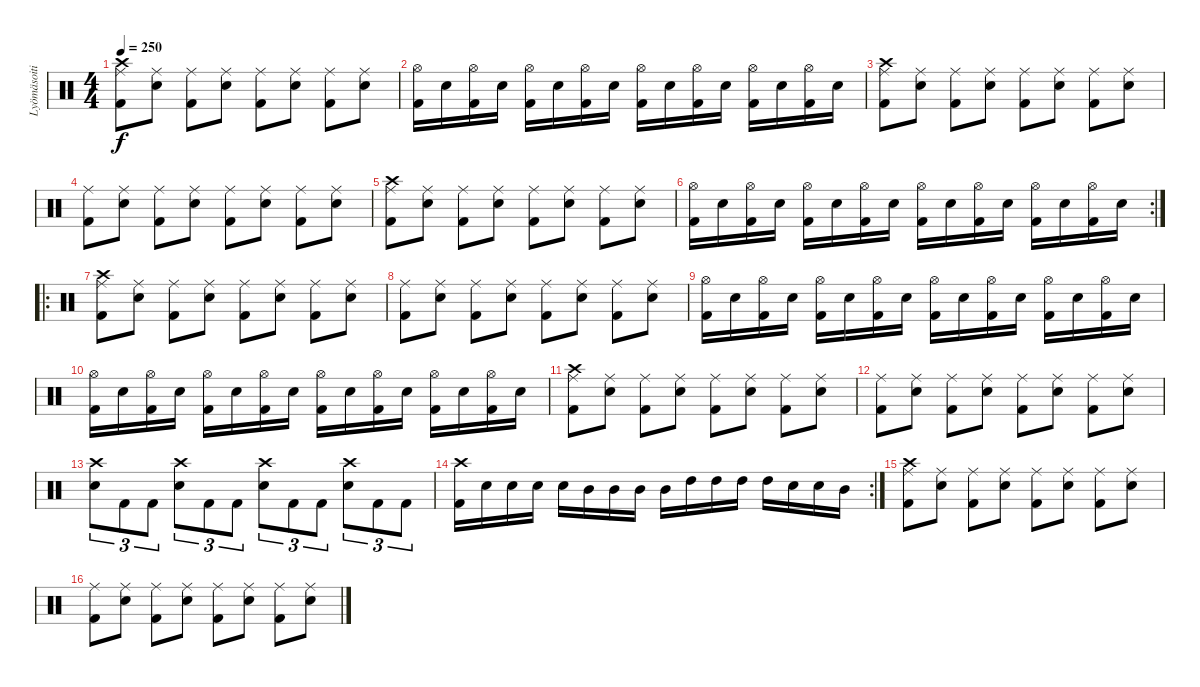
\track ("Lyömäsoitin" "Lyömäsoiti") {instrument percussion}
\staff {score}
\articulation defaults
\ts (4 4)
\tempo 250
\clef neutral
\ks c
("Crash high (hit)" "Ride (middle)" "Kick (hit) 2").8{dy f} ("Ride (middle)" "Electric Snare (hit)").8 ("Ride (middle)" "Kick (hit) 2").8 ("Ride (middle)" "Electric Snare (hit)").8 ("Ride (middle)" "Kick (hit) 2").8 ("Ride (middle)" "Electric Snare (hit)").8 ("Ride (middle)" "Kick (hit) 2").8 ("Ride (middle)" "Electric Snare (hit)").8 |
("Hi-Hat (open)" "Kick (hit) 2").16 "Electric Snare (hit)".16 ("Hi-Hat (open)" "Kick (hit) 2").16 "Electric Snare (hit)".16 ("Hi-Hat (open)" "Kick (hit) 2").16 "Electric Snare (hit)".16 ("Hi-Hat (open)" "Kick (hit) 2").16 "Electric Snare (hit)".16 ("Hi-Hat (open)" "Kick (hit) 2").16 "Electric Snare (hit)".16 ("Hi-Hat (open)" "Kick (hit) 2").16 "Electric Snare (hit)".16 ("Hi-Hat (open)" "Kick (hit) 2").16 "Electric Snare (hit)".16 ("Hi-Hat (open)" "Kick (hit) 2").16 "Electric Snare (hit)".16 |
("Crash high (hit)" "Ride (middle)" "Kick (hit) 2").8 ("Ride (middle)" "Electric Snare (hit)").8 ("Ride (middle)" "Kick (hit) 2").8 ("Ride (middle)" "Electric Snare (hit)").8 ("Ride (middle)" "Kick (hit) 2").8 ("Ride (middle)" "Electric Snare (hit)").8 ("Ride (middle)" "Kick (hit) 2").8 ("Ride (middle)" "Electric Snare (hit)").8 |
("Ride (middle)" "Kick (hit) 2").8 ("Ride (middle)" "Electric Snare (hit)").8 ("Ride (middle)" "Kick (hit) 2").8 ("Ride (middle)" "Electric Snare (hit)").8 ("Ride (middle)" "Kick (hit) 2").8 ("Ride (middle)" "Electric Snare (hit)").8 ("Ride (middle)" "Kick (hit) 2").8 ("Ride (middle)" "Electric Snare (hit)").8 |
("Crash high (hit)" "Ride (middle)" "Kick (hit) 2").8 ("Ride (middle)" "Electric Snare (hit)").8 ("Ride (middle)" "Kick (hit) 2").8 ("Ride (middle)" "Electric Snare (hit)").8 ("Ride (middle)" "Kick (hit) 2").8 ("Ride (middle)" "Electric Snare (hit)").8 ("Ride (middle)" "Kick (hit) 2").8 ("Ride (middle)" "Electric Snare (hit)").8 |
\rc 2
("Hi-Hat (open)" "Kick (hit) 2").16 "Electric Snare (hit)".16 ("Hi-Hat (open)" "Kick (hit) 2").16 "Electric Snare (hit)".16 ("Hi-Hat (open)" "Kick (hit) 2").16 "Electric Snare (hit)".16 ("Hi-Hat (open)" "Kick (hit) 2").16 "Electric Snare (hit)".16 ("Hi-Hat (open)" "Kick (hit) 2").16 "Electric Snare (hit)".16 ("Hi-Hat (open)" "Kick (hit) 2").16 "Electric Snare (hit)".16 ("Hi-Hat (open)" "Kick (hit) 2").16 "Electric Snare (hit)".16 ("Hi-Hat (open)" "Kick (hit) 2").16 "Electric Snare (hit)".16 |
\ro
("Crash high (hit)" "Ride (middle)" "Kick (hit) 2").8 ("Ride (middle)" "Electric Snare (hit)").8 ("Ride (middle)" "Kick (hit) 2").8 ("Ride (middle)" "Electric Snare (hit)").8 ("Ride (middle)" "Kick (hit) 2").8 ("Ride (middle)" "Electric Snare (hit)").8 ("Ride (middle)" "Kick (hit) 2").8 ("Ride (middle)" "Electric Snare (hit)").8 |
("Ride (middle)" "Kick (hit) 2").8 ("Ride (middle)" "Electric Snare (hit)").8 ("Ride (middle)" "Kick (hit) 2").8 ("Ride (middle)" "Electric Snare (hit)").8 ("Ride (middle)" "Kick (hit) 2").8 ("Ride (middle)" "Electric Snare (hit)").8 ("Ride (middle)" "Kick (hit) 2").8 ("Ride (middle)" "Electric Snare (hit)").8 |
("Hi-Hat (open)" "Kick (hit) 2").16 "Electric Snare (hit)".16 ("Hi-Hat (open)" "Kick (hit) 2").16 "Electric Snare (hit)".16 ("Hi-Hat (open)" "Kick (hit) 2").16 "Electric Snare (hit)".16 ("Hi-Hat (open)" "Kick (hit) 2").16 "Electric Snare (hit)".16 ("Hi-Hat (open)" "Kick (hit) 2").16 "Electric Snare (hit)".16 ("Hi-Hat (open)" "Kick (hit) 2").16 "Electric Snare (hit)".16 ("Hi-Hat (open)" "Kick (hit) 2").16 "Electric Snare (hit)".16 ("Hi-Hat (open)" "Kick (hit) 2").16 "Electric Snare (hit)".16 |
("Hi-Hat (open)" "Kick (hit) 2").16 "Electric Snare (hit)".16 ("Hi-Hat (open)" "Kick (hit) 2").16 "Electric Snare (hit)".16 ("Hi-Hat (open)" "Kick (hit) 2").16 "Electric Snare (hit)".16 ("Hi-Hat (open)" "Kick (hit) 2").16 "Electric Snare (hit)".16 ("Hi-Hat (open)" "Kick (hit) 2").16 "Electric Snare (hit)".16 ("Hi-Hat (open)" "Kick (hit) 2").16 "Electric Snare (hit)".16 ("Hi-Hat (open)" "Kick (hit) 2").16 "Electric Snare (hit)".16 ("Hi-Hat (open)" "Kick (hit) 2").16 "Electric Snare (hit)".16 |
("Crash high (hit)" "Ride (middle)" "Kick (hit) 2").8 ("Ride (middle)" "Electric Snare (hit)").8 ("Ride (middle)" "Kick (hit) 2").8 ("Ride (middle)" "Electric Snare (hit)").8 ("Ride (middle)" "Kick (hit) 2").8 ("Ride (middle)" "Electric Snare (hit)").8 ("Ride (middle)" "Kick (hit) 2").8 ("Ride (middle)" "Electric Snare (hit)").8 |
("Ride (middle)" "Kick (hit) 2").8 ("Ride (middle)" "Electric Snare (hit)").8 ("Ride (middle)" "Kick (hit) 2").8 ("Ride (middle)" "Electric Snare (hit)").8 ("Ride (middle)" "Kick (hit) 2").8 ("Ride (middle)" "Electric Snare (hit)").8 ("Ride (middle)" "Kick (hit) 2").8 ("Ride (middle)" "Electric Snare (hit)").8 |
("Crash high (hit)" "Electric Snare (hit)").8{tu (3 2)} "Kick (hit) 2".8{tu (3 2)} "Kick (hit) 2".8{tu (3 2)} ("Crash high (hit)" "Electric Snare (hit)").8{tu (3 2)} "Kick (hit) 2".8{tu (3 2)} "Kick (hit) 2".8{tu (3 2)} ("Crash high (hit)" "Electric Snare (hit)").8{tu (3 2)} "Kick (hit) 2".8{tu (3 2)} "Kick (hit) 2".8{tu (3 2)} ("Crash high (hit)" "Electric Snare (hit)").8{tu (3 2)} "Kick (hit) 2".8{tu (3 2)} "Kick (hit) 2".8{tu (3 2)} |
\rc 2
("Crash high (hit)" "Kick (hit) 2").16 "Electric Snare (hit)".16 "Electric Snare (hit)".16 "Electric Snare (hit)".16 "Electric Snare (hit)".16 "Mid Tom (hit)".16 "Mid Tom (hit)".16 "Mid Tom (hit)".16 "Mid Tom (hit)".16 "High Tom (hit)".16 "High Tom (hit)".16 "High Tom (hit)".16 "High Tom (hit)".16 "Electric Snare (hit)".16 "Electric Snare (hit)".16 "Mid Tom (hit)".16 |
("Crash high (hit)" "Ride (middle)" "Kick (hit) 2").8 ("Ride (middle)" "Electric Snare (hit)").8 ("Ride (middle)" "Kick (hit) 2").8 ("Ride (middle)" "Electric Snare (hit)").8 ("Ride (middle)" "Kick (hit) 2").8 ("Ride (middle)" "Electric Snare (hit)").8 ("Ride (middle)" "Kick (hit) 2").8 ("Ride (middle)" "Electric Snare (hit)").8 |
("Ride (middle)" "Kick (hit) 2").8 ("Ride (middle)" "Electric Snare (hit)").8 ("Ride (middle)" "Kick (hit) 2").8 ("Ride (middle)" "Electric Snare (hit)").8 ("Ride (middle)" "Kick (hit) 2").8 ("Ride (middle)" "Electric Snare (hit)").8 ("Ride (middle)" "Kick (hit) 2").8 ("Ride (middle)" "Electric Snare (hit)").8
